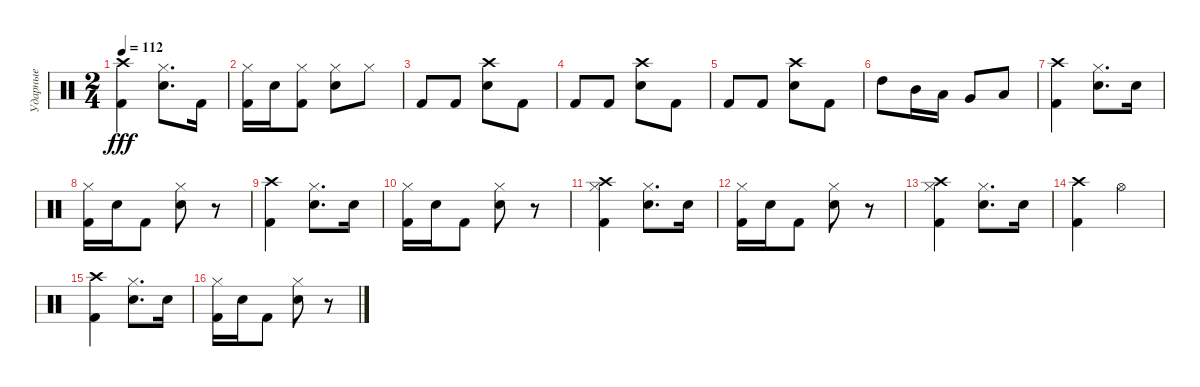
\track ("Ударные" "Ударные") {instrument percussion}
\staff {score}
\articulation defaults
\ts (2 4)
\tempo 112
\clef neutral
\ks c
("Kick (hit) 2" "Crash high (hit)").4{dy fff} ("Electric Snare (hit)" "Hi-Hat (closed)").8{d} "Kick (hit) 2".16 |
("Kick (hit) 2" "Hi-Hat (closed)").16 "Electric Snare (hit)".16 ("Kick (hit) 2" "Hi-Hat (closed)").8 ("Electric Snare (hit)" "Hi-Hat (closed)").8 "Hi-Hat (closed)".8 |
"Kick (hit) 2".8 "Kick (hit) 2".8 ("Electric Snare (hit)" "Crash high (hit)").8 "Kick (hit) 2".8 |
"Kick (hit) 2".8 "Kick (hit) 2".8 ("Electric Snare (hit)" "Crash high (hit)").8 "Kick (hit) 2".8 |
"Kick (hit) 2".8 "Kick (hit) 2".8 ("Electric Snare (hit)" "Crash high (hit)").8 "Kick (hit) 2".8 |
"High Tom (hit)".8 "Mid Tom (hit)".16 "Low Tom (hit)".16 "Very Low Tom (hit)".8 "Low Floor Tom (hit)".8 |
("Kick (hit) 2" "Crash high (hit)").4 ("Hi-Hat (closed)" "Electric Snare (hit)").8{d} "Electric Snare (hit)".16 |
("Kick (hit) 2" "Hi-Hat (closed)").16 "Electric Snare (hit)".16 "Kick (hit) 2".8 ("Electric Snare (hit)" "Hi-Hat (closed)").8 r.8 |
("Kick (hit) 2" "Crash high (hit)").4 ("Hi-Hat (closed)" "Electric Snare (hit)").8{d} "Electric Snare (hit)".16 |
("Kick (hit) 2" "Hi-Hat (closed)").16 "Electric Snare (hit)".16 "Kick (hit) 2".8 ("Electric Snare (hit)" "Hi-Hat (closed)").8 r.8 |
("Kick (hit) 2" "Hi-Hat (closed)" "Crash high (hit)").4 ("Electric Snare (hit)" "Hi-Hat (closed)").8{d} "Electric Snare (hit)".16 |
("Kick (hit) 2" "Hi-Hat (closed)").16 "Electric Snare (hit)".16 "Kick (hit) 2".8 ("Electric Snare (hit)" "Hi-Hat (closed)").8 r.8 |
("Kick (hit) 2" "Hi-Hat (closed)" "Crash high (hit)").4 ("Electric Snare (hit)" "Hi-Hat (closed)").8{d} "Electric Snare (hit)".16 |
("Kick (hit) 2" "Crash high (hit)").4 "Hi-Hat (open)".4 |
("Kick (hit) 2" "Crash high (hit)").4 ("Hi-Hat (closed)" "Electric Snare (hit)").8{d} "Electric Snare (hit)".16 |
("Kick (hit) 2" "Hi-Hat (closed)").16 "Electric Snare (hit)".16 "Kick (hit) 2".8 ("Electric Snare (hit)" "Hi-Hat (closed)").8 r.8
